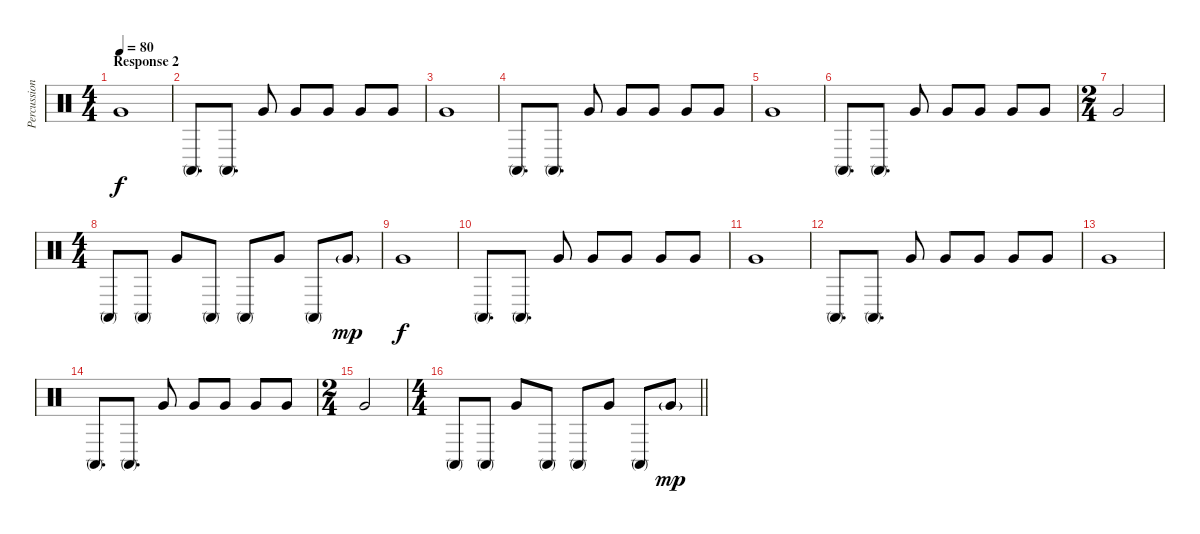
\track ("Percussion" "Percussion") {instrument percussion}
\staff {score}
\articulation defaults
\ts (4 4)
\section ("" "Response 2")
\tempo 80
\clef neutral
\ks c "Very Low Tom (hit)".1{dy f}
|
"Conga high (mute)".8{d} "Conga high (mute)".8{d} "Very Low Tom (hit)".8 "Very Low Tom (hit)".8 "Very Low Tom (hit)".8 "Very Low Tom (hit)".8 "Very Low Tom (hit)".8 |
"Very Low Tom (hit)".1 |
"Conga high (mute)".8{d} "Conga high (mute)".8{d} "Very Low Tom (hit)".8 "Very Low Tom (hit)".8 "Very Low Tom (hit)".8 "Very Low Tom (hit)".8 "Very Low Tom (hit)".8 |
"Very Low Tom (hit)".1 |
"Conga high (mute)".8{d} "Conga high (mute)".8{d} "Very Low Tom (hit)".8 "Very Low Tom (hit)".8 "Very Low Tom (hit)".8 "Very Low Tom (hit)".8 "Very Low Tom (hit)".8 |
\ts (2 4)
"Very Low Tom (hit)".2 |
\ts (4 4)
"Conga high (mute)".8 "Conga high (mute)".8 "Very Low Tom (hit)".8 "Conga high (mute)".8 "Conga high (mute)".8 "Very Low Tom (hit)".8 "Conga high (mute)".8 "Very Low Tom (hit)"{g}.8{dy mp} |
"Very Low Tom (hit)".1{dy f} |
"Conga high (mute)".8{d} "Conga high (mute)".8{d} "Very Low Tom (hit)".8 "Very Low Tom (hit)".8 "Very Low Tom (hit)".8 "Very Low Tom (hit)".8 "Very Low Tom (hit)".8 |
"Very Low Tom (hit)".1 |
"Conga high (mute)".8{d} "Conga high (mute)".8{d} "Very Low Tom (hit)".8 "Very Low Tom (hit)".8 "Very Low Tom (hit)".8 "Very Low Tom (hit)".8 "Very Low Tom (hit)".8 |
"Very Low Tom (hit)".1 |
"Conga high (mute)".8{d} "Conga high (mute)".8{d} "Very Low Tom (hit)".8 "Very Low Tom (hit)".8 "Very Low Tom (hit)".8 "Very Low Tom (hit)".8 "Very Low Tom (hit)".8 |
\ts (2 4)
"Very Low Tom (hit)".2 |
\ts (4 4)
\barLineRight lightlight "Conga high (mute)".8 "Conga high (mute)".8 "Very Low Tom (hit)".8 "Conga high (mute)".8 "Conga high (mute)".8 "Very Low Tom (hit)".8 "Conga high (mute)".8 "Very Low Tom (hit)"{g}.8{dy mp}
